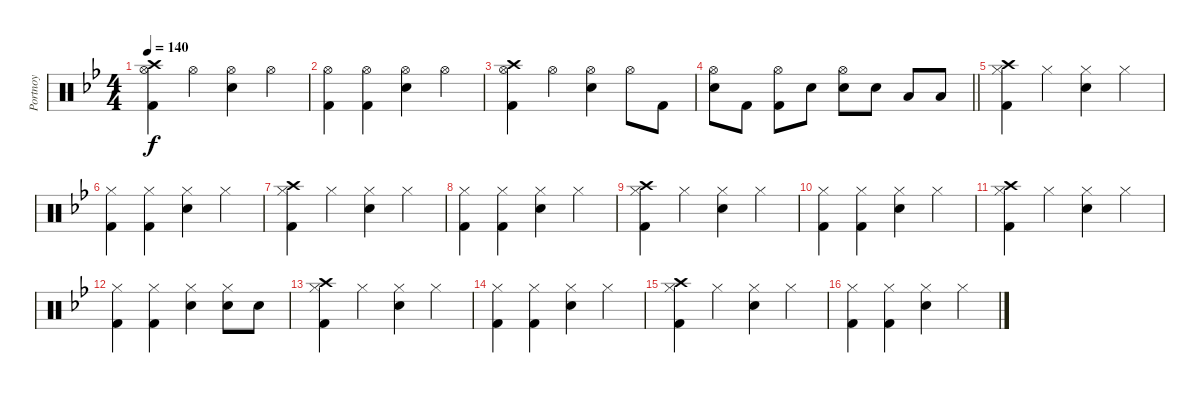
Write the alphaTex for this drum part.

\track ("Portnoy" "Portnoy") {instrument percussion}
\staff {score}
\articulation defaults
\ts (4 4)
\tempo 140
\clef neutral
\ks bb
("Crash high (hit)" "Hi-Hat (open)" "Kick (hit) 2").4{dy f} "Hi-Hat (open)".4 ("Hi-Hat (open)" "Snare (hit) 2").4 "Hi-Hat (open)".4 |
("Hi-Hat (open)" "Kick (hit) 2").4 ("Hi-Hat (open)" "Kick (hit) 2").4 ("Hi-Hat (open)" "Snare (hit) 2").4 "Hi-Hat (open)".4 |
("Crash high (hit)" "Hi-Hat (open)" "Kick (hit) 2").4 "Hi-Hat (open)".4 ("Hi-Hat (open)" "Snare (hit) 2").4 "Hi-Hat (open)".8 "Kick (hit) 2".8 |
\barLineRight lightlight
("Hi-Hat (open)" "Snare (hit) 2").8 "Kick (hit) 2".8 ("Hi-Hat (open)" "Kick (hit) 2").8 "Snare (hit) 2".8 ("Hi-Hat (open)" "Snare (hit) 2").8 "Snare (hit) 2".8 "Low Tom (hit)".8 "Low Floor Tom (hit)".8 |
("Hi-Hat (closed)" "Crash high (hit)" "Kick (hit) 2").4 "Hi-Hat (closed)".4 ("Hi-Hat (closed)" "Snare (hit) 2").4 "Hi-Hat (closed)".4 |
("Hi-Hat (closed)" "Kick (hit) 2").4 ("Hi-Hat (closed)" "Kick (hit) 2").4 ("Hi-Hat (closed)" "Snare (hit) 2").4 "Hi-Hat (closed)".4 |
("Hi-Hat (closed)" "Crash high (hit)" "Kick (hit) 2").4 "Hi-Hat (closed)".4 ("Hi-Hat (closed)" "Snare (hit) 2").4 "Hi-Hat (closed)".4 |
("Hi-Hat (closed)" "Kick (hit) 2").4 ("Hi-Hat (closed)" "Kick (hit) 2").4 ("Hi-Hat (closed)" "Snare (hit) 2").4 "Hi-Hat (closed)".4 |
("Hi-Hat (closed)" "Crash high (hit)" "Kick (hit) 2").4 "Hi-Hat (closed)".4 ("Hi-Hat (closed)" "Snare (hit) 2").4 "Hi-Hat (closed)".4 |
("Hi-Hat (closed)" "Kick (hit) 2").4 ("Hi-Hat (closed)" "Kick (hit) 2").4 ("Hi-Hat (closed)" "Snare (hit) 2").4 "Hi-Hat (closed)".4 |
("Hi-Hat (closed)" "Crash high (hit)" "Kick (hit) 2").4 "Hi-Hat (closed)".4 ("Hi-Hat (closed)" "Snare (hit) 2").4 "Hi-Hat (closed)".4 |
("Hi-Hat (closed)" "Kick (hit) 2").4 ("Hi-Hat (closed)" "Kick (hit) 2").4 ("Hi-Hat (closed)" "Snare (hit) 2").4 ("Hi-Hat (closed)" "Snare (hit) 2").8 "Snare (hit) 2".8 |
("Hi-Hat (closed)" "Crash high (hit)" "Kick (hit) 2").4 "Hi-Hat (closed)".4 ("Hi-Hat (closed)" "Snare (hit) 2").4 "Hi-Hat (closed)".4 |
("Hi-Hat (closed)" "Kick (hit) 2").4 ("Hi-Hat (closed)" "Kick (hit) 2").4 ("Hi-Hat (closed)" "Snare (hit) 2").4 "Hi-Hat (closed)".4 |
("Hi-Hat (closed)" "Crash high (hit)" "Kick (hit) 2").4 "Hi-Hat (closed)".4 ("Hi-Hat (closed)" "Snare (hit) 2").4 "Hi-Hat (closed)".4 |
("Hi-Hat (closed)" "Kick (hit) 2").4 ("Hi-Hat (closed)" "Kick (hit) 2").4 ("Hi-Hat (closed)" "Snare (hit) 2").4 "Hi-Hat (closed)".4
